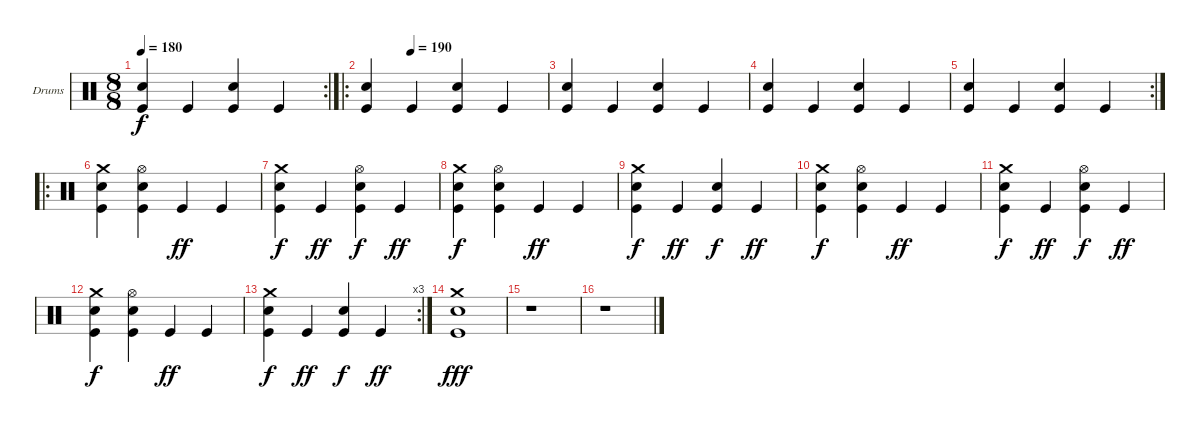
\bracketExtendMode groupsimilarinstruments
\firstSystemTrackNameOrientation horizontal
\otherSystemsTrackNameOrientation horizontal
\track ("Drumkit" "Drums") {instrument percussion}
\staff {score}
\articulation defaults
\rc 2
\ts (8 8)
\tempo 180
\clef neutral
\ks c
("Snare (hit) 2" "Kick (hit)").4{dy f} "Kick (hit)".4 ("Snare (hit) 2" "Kick (hit)").4 "Kick (hit)".4 |
\ro
\tempo (190 0.25)
("Snare (hit) 2" "Kick (hit)").4 "Kick (hit)".4 ("Snare (hit) 2" "Kick (hit)").4 "Kick (hit)".4 |
("Snare (hit) 2" "Kick (hit)").4 "Kick (hit)".4 ("Snare (hit) 2" "Kick (hit)").4 "Kick (hit)".4 |
("Snare (hit) 2" "Kick (hit)").4 "Kick (hit)".4 ("Snare (hit) 2" "Kick (hit)").4 "Kick (hit)".4 |
\rc 2
("Snare (hit) 2" "Kick (hit)").4 "Kick (hit)".4 ("Snare (hit) 2" "Kick (hit)").4 "Kick (hit)".4 |
\ro
("Crash medium (hit)" "Snare (hit) 2" "Kick (hit)").4 ("Hi-Hat (open)" "Snare (hit) 2" "Kick (hit)").4 "Kick (hit)".4{dy ff} "Kick (hit)".4 |
("Crash medium (hit)" "Snare (hit) 2" "Kick (hit)").4{dy f} "Kick (hit)".4{dy ff} ("Hi-Hat (open)" "Snare (hit) 2" "Kick (hit)").4{dy f} "Kick (hit)".4{dy ff} |
("Crash medium (hit)" "Snare (hit) 2" "Kick (hit)").4{dy f} ("Hi-Hat (open)" "Snare (hit) 2" "Kick (hit)").4 "Kick (hit)".4{dy ff} "Kick (hit)".4 |
("Crash medium (hit)" "Snare (hit) 2" "Kick (hit)").4{dy f} "Kick (hit)".4{dy ff} ("Kick (hit)" "Snare (hit) 2").4{dy f} "Kick (hit)".4{dy ff} |
("Crash medium (hit)" "Snare (hit) 2" "Kick (hit)").4{dy f} ("Hi-Hat (open)" "Snare (hit) 2" "Kick (hit)").4 "Kick (hit)".4{dy ff} "Kick (hit)".4 |
("Crash medium (hit)" "Snare (hit) 2" "Kick (hit)").4{dy f} "Kick (hit)".4{dy ff} ("Hi-Hat (open)" "Snare (hit) 2" "Kick (hit)").4{dy f} "Kick (hit)".4{dy ff} |
("Crash medium (hit)" "Snare (hit) 2" "Kick (hit)").4{dy f} ("Hi-Hat (open)" "Snare (hit) 2" "Kick (hit)").4 "Kick (hit)".4{dy ff} "Kick (hit)".4 |
\rc 3
("Crash medium (hit)" "Snare (hit) 2" "Kick (hit)").4{dy f} "Kick (hit)".4{dy ff} ("Kick (hit)" "Snare (hit) 2").4{dy f} "Kick (hit)".4{dy ff} |
("Crash medium (hit)" "Snare (hit) 2" "Kick (hit)").1{dy fff} |
r.1 |
r.1
